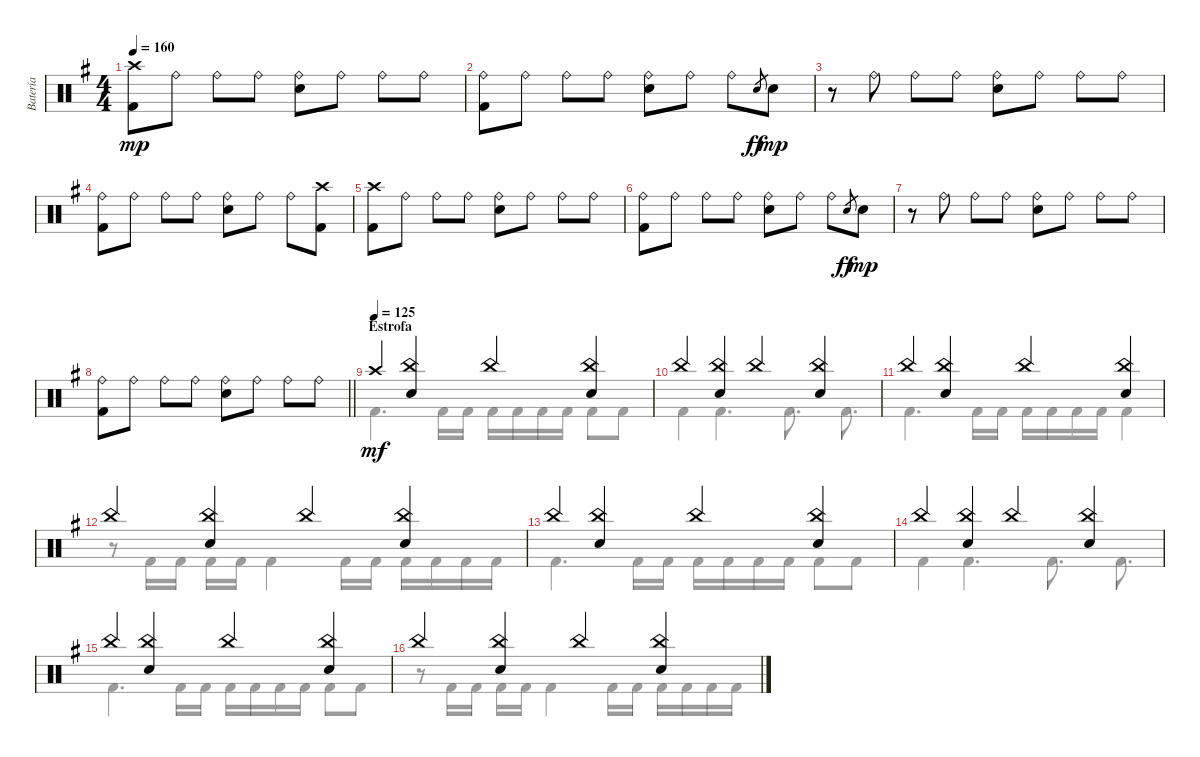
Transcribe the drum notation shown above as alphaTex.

\track ("Batería" "Batería") {instrument percussion}
\staff {score}
\articulation defaults
\voice
\ts (4 4)
\tempo 160
\clef neutral
\ks g
("Crash high (hit)" "Kick (hit) 2").8{dy mp} "Ride (bell)".8 "Ride (bell)".8 "Ride (bell)".8 ("Ride (bell)" "Snare (hit) 2").8 "Ride (bell)".8 "Ride (bell)".8 "Ride (bell)".8 |
("Ride (bell)" "Kick (hit) 2").8 "Ride (bell)".8 "Ride (bell)".8 "Ride (bell)".8 ("Ride (bell)" "Snare (hit) 2").8 "Ride (bell)".8 "Ride (bell)".8 "Snare (hit) 2".8{gr dy ff} "Snare (hit) 2".8{dy mp} |
r.8 "Ride (bell)".8 "Ride (bell)".8 "Ride (bell)".8 ("Ride (bell)" "Snare (hit) 2").8 "Ride (bell)".8 "Ride (bell)".8 "Ride (bell)".8 |
("Ride (bell)" "Kick (hit) 2").8 "Ride (bell)".8 "Ride (bell)".8 "Ride (bell)".8 ("Ride (bell)" "Snare (hit) 2").8 "Ride (bell)".8 "Ride (bell)".8 ("Crash high (hit)" "Kick (hit) 2").8 |
("Crash high (hit)" "Kick (hit) 2").8 "Ride (bell)".8 "Ride (bell)".8 "Ride (bell)".8 ("Ride (bell)" "Snare (hit) 2").8 "Ride (bell)".8 "Ride (bell)".8 "Ride (bell)".8 |
("Ride (bell)" "Kick (hit) 2").8 "Ride (bell)".8 "Ride (bell)".8 "Ride (bell)".8 ("Ride (bell)" "Snare (hit) 2").8 "Ride (bell)".8 "Ride (bell)".8 "Snare (hit) 2".8{gr dy ff} "Snare (hit) 2".8{dy mp} |
r.8 "Ride (bell)".8 "Ride (bell)".8 "Ride (bell)".8 ("Ride (bell)" "Snare (hit) 2").8 "Ride (bell)".8 "Ride (bell)".8 "Ride (bell)".8 |
\barLineRight lightlight
("Ride (bell)" "Kick (hit) 2").8 "Ride (bell)".8 "Ride (bell)".8 "Ride (bell)".8 ("Ride (bell)" "Snare (hit) 2").8 "Ride (bell)".8 "Ride (bell)".8 "Ride (bell)".8 |
\section ("" "Estrofa")
\tempo (125)
"Crash high (hit)".4{dy mf volume 13} ("China (hit)" "Snare (hit) 2").4 "China (hit)".4 ("China (hit)" "Snare (hit) 2").4 |
"China (hit)".4 ("China (hit)" "Snare (hit) 2").4 "China (hit)".4 ("China (hit)" "Snare (hit) 2").4 |
"China (hit)".4 ("China (hit)" "Snare (hit) 2").4 "China (hit)".4 ("China (hit)" "Snare (hit) 2").4 |
"China (hit)".4 ("China (hit)" "Snare (hit) 2").4 "China (hit)".4 ("China (hit)" "Snare (hit) 2").4 |
"China (hit)".4 ("China (hit)" "Snare (hit) 2").4 "China (hit)".4 ("China (hit)" "Snare (hit) 2").4 |
"China (hit)".4 ("China (hit)" "Snare (hit) 2").4 "China (hit)".4 ("China (hit)" "Snare (hit) 2").4 |
"China (hit)".4 ("China (hit)" "Snare (hit) 2").4 "China (hit)".4 ("China (hit)" "Snare (hit) 2").4 |
"China (hit)".4 ("China (hit)" "Snare (hit) 2").4 "China (hit)".4 ("China (hit)" "Snare (hit) 2").4
\voice
\clef neutral
\ottava regular
\simile none
\ks g
|
|
|
|
|
|
|
\barLineRight lightlight
|
"Kick (hit) 2".4{d} "Kick (hit) 2".16 "Kick (hit) 2".16 "Kick (hit) 2".16 "Kick (hit) 2".16 "Kick (hit) 2".16 "Kick (hit) 2".16 "Kick (hit) 2".8 "Kick (hit) 2".8 |
"Kick (hit) 2".4 "Kick (hit) 2".4{d} "Kick (hit) 2".8{d} "Kick (hit) 2".8{d} |
"Kick (hit) 2".4{d} "Kick (hit) 2".16 "Kick (hit) 2".16 "Kick (hit) 2".16 "Kick (hit) 2".16 "Kick (hit) 2".16 "Kick (hit) 2".16 "Kick (hit) 2".4 |
r.8 "Kick (hit) 2".16 "Kick (hit) 2".16 "Kick (hit) 2".16 "Kick (hit) 2".16 "Kick (hit) 2".4 "Kick (hit) 2".16 "Kick (hit) 2".16 "Kick (hit) 2".16 "Kick (hit) 2".16 "Kick (hit) 2".16 "Kick (hit) 2".16 |
"Kick (hit) 2".4{d} "Kick (hit) 2".16 "Kick (hit) 2".16 "Kick (hit) 2".16 "Kick (hit) 2".16 "Kick (hit) 2".16 "Kick (hit) 2".16 "Kick (hit) 2".8 "Kick (hit) 2".8 |
"Kick (hit) 2".4 "Kick (hit) 2".4{d} "Kick (hit) 2".8{d} "Kick (hit) 2".8{d} |
"Kick (hit) 2".4{d} "Kick (hit) 2".16 "Kick (hit) 2".16 "Kick (hit) 2".16 "Kick (hit) 2".16 "Kick (hit) 2".16 "Kick (hit) 2".16 "Kick (hit) 2".8 "Kick (hit) 2".8 |
r.8 "Kick (hit) 2".16 "Kick (hit) 2".16 "Kick (hit) 2".16 "Kick (hit) 2".16 "Kick (hit) 2".4 "Kick (hit) 2".16 "Kick (hit) 2".16 "Kick (hit) 2".16 "Kick (hit) 2".16 "Kick (hit) 2".16 "Kick (hit) 2".16
